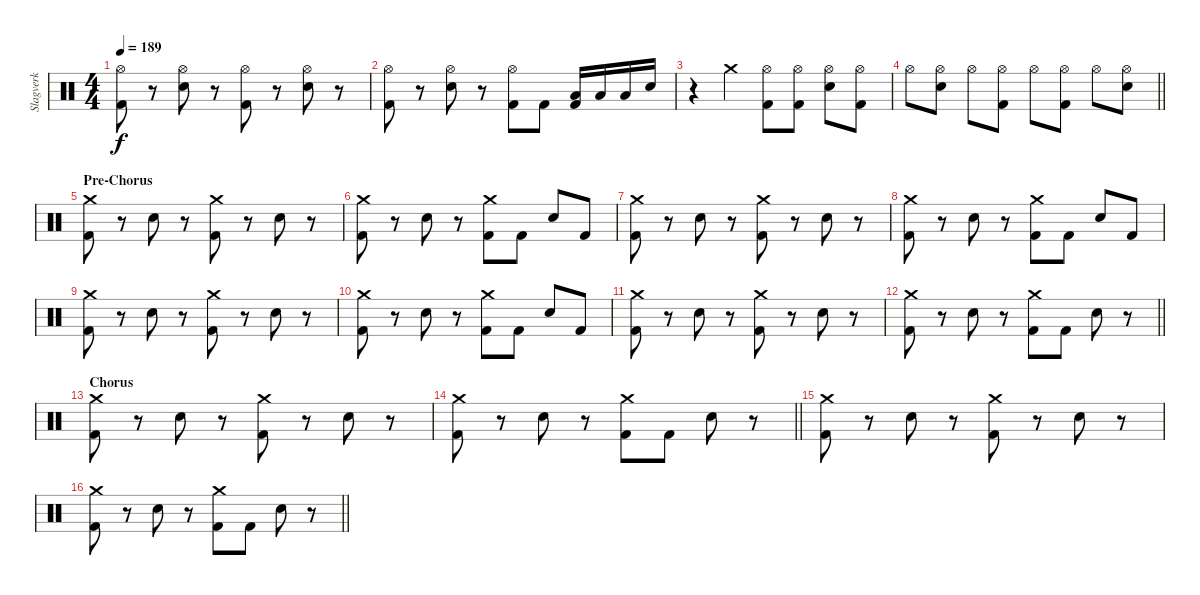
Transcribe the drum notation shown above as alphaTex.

\track ("Slagverk" "Slagverk") {instrument percussion}
\staff {score}
\articulation defaults
\ts (4 4)
\tempo 189
\clef neutral
\ks c
("Hi-Hat (open)" "Kick (hit) 2").8{dy f} r.8 ("Hi-Hat (open)" "Snare (hit) 2").8 r.8 ("Hi-Hat (open)" "Kick (hit) 2").8 r.8 ("Hi-Hat (open)" "Snare (hit) 2").8 r.8 |
("Hi-Hat (open)" "Kick (hit) 2").8 r.8 ("Hi-Hat (open)" "Snare (hit) 2").8 r.8 ("Hi-Hat (open)" "Kick (hit) 2").8 "Kick (hit) 2".8 ("Low Tom (hit)" "Kick (hit) 2").16 "Low Tom (hit)".16 "Low Tom (hit)".16 "Snare (hit) 2".16 |
r.4 "Crash medium (hit)".4 ("Hi-Hat (open)" "Kick (hit) 2").8 ("Hi-Hat (open)" "Kick (hit) 2").8 ("Hi-Hat (open)" "Snare (hit) 2").8 ("Hi-Hat (open)" "Kick (hit) 2").8 |
\barLineRight lightlight "Hi-Hat (open)".8
("Hi-Hat (open)" "Snare (hit) 2").8 "Hi-Hat (open)".8 ("Hi-Hat (open)" "Kick (hit) 2").8 "Hi-Hat (open)".8 ("Hi-Hat (open)" "Kick (hit) 2").8 "Hi-Hat (open)".8 ("Hi-Hat (open)" "Snare (hit) 2").8 |
\section ("" "Pre-Chorus")
("Crash medium (hit)" "Kick (hit) 2").8 r.8 "Snare (hit) 2".8 r.8 ("Crash medium (hit)" "Kick (hit) 2").8 r.8 "Snare (hit) 2".8 r.8 |
("Crash medium (hit)" "Kick (hit) 2").8 r.8 "Snare (hit) 2".8 r.8 ("Crash medium (hit)" "Kick (hit) 2").8 "Kick (hit) 2".8 "Snare (hit) 2".8 "Kick (hit) 2".8 |
("Crash medium (hit)" "Kick (hit) 2").8 r.8 "Snare (hit) 2".8 r.8 ("Crash medium (hit)" "Kick (hit) 2").8 r.8 "Snare (hit) 2".8 r.8 |
("Crash medium (hit)" "Kick (hit) 2").8 r.8 "Snare (hit) 2".8 r.8 ("Crash medium (hit)" "Kick (hit) 2").8 "Kick (hit) 2".8 "Snare (hit) 2".8 "Kick (hit) 2".8 |
("Crash medium (hit)" "Kick (hit) 2").8 r.8 "Snare (hit) 2".8 r.8 ("Crash medium (hit)" "Kick (hit) 2").8 r.8 "Snare (hit) 2".8 r.8 |
("Crash medium (hit)" "Kick (hit) 2").8 r.8 "Snare (hit) 2".8 r.8 ("Crash medium (hit)" "Kick (hit) 2").8 "Kick (hit) 2".8 "Snare (hit) 2".8 "Kick (hit) 2".8 |
("Crash medium (hit)" "Kick (hit) 2").8 r.8 "Snare (hit) 2".8 r.8 ("Crash medium (hit)" "Kick (hit) 2").8 r.8 "Snare (hit) 2".8 r.8 |
\barLineRight lightlight
("Crash medium (hit)" "Kick (hit) 2").8 r.8 "Snare (hit) 2".8 r.8 ("Crash medium (hit)" "Kick (hit) 2").8 "Kick (hit) 2".8 "Snare (hit) 2".8 r.8 |
\section ("" "Chorus")
("Crash medium (hit)" "Kick (hit) 2").8 r.8 "Snare (hit) 2".8 r.8 ("Crash medium (hit)" "Kick (hit) 2").8 r.8 "Snare (hit) 2".8 r.8 |
\barLineRight lightlight
("Crash medium (hit)" "Kick (hit) 2").8 r.8 "Snare (hit) 2".8 r.8 ("Crash medium (hit)" "Kick (hit) 2").8 "Kick (hit) 2".8 "Snare (hit) 2".8 r.8 |
("Crash medium (hit)" "Kick (hit) 2").8 r.8 "Snare (hit) 2".8 r.8 ("Crash medium (hit)" "Kick (hit) 2").8 r.8 "Snare (hit) 2".8 r.8 |
\barLineRight lightlight
("Crash medium (hit)" "Kick (hit) 2").8 r.8 "Snare (hit) 2".8 r.8 ("Crash medium (hit)" "Kick (hit) 2").8 "Kick (hit) 2".8 "Snare (hit) 2".8 r.8
